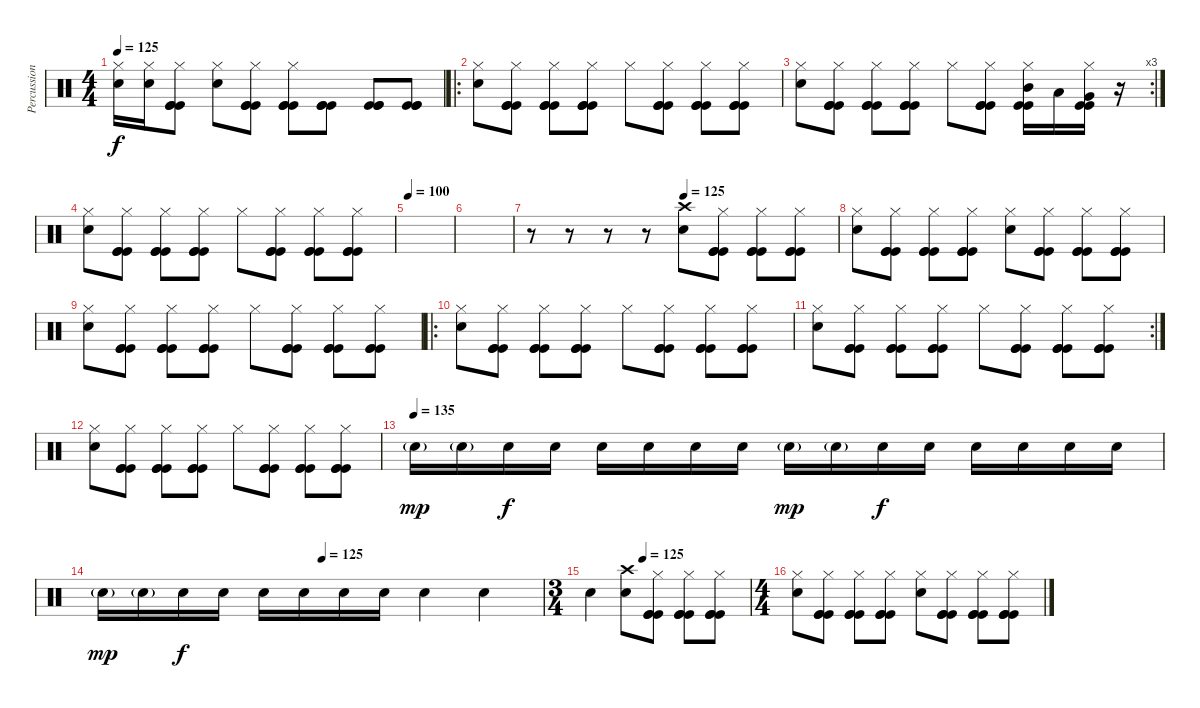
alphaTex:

\track ("Percussion" "Percussion") {instrument percussion}
\staff {score}
\articulation defaults
\ts (4 4)
\tempo 125
\clef neutral
\ks c
("Electric Snare (hit)" "Hi-Hat (closed)").16{dy f} ("Electric Snare (hit)" "Hi-Hat (closed)").16 ("Kick (hit)" "Kick (hit)" "Kick (hit)" "Hi-Hat (closed)").8 ("Electric Snare (hit)" "Hi-Hat (closed)").8 ("Kick (hit)" "Kick (hit)" "Kick (hit)" "Hi-Hat (closed)").8 ("Kick (hit)" "Kick (hit)" "Kick (hit)" "Hi-Hat (closed)").8 ("Kick (hit)" "Kick (hit)" "Kick (hit)").8 ("Kick (hit)" "Kick (hit)" "Kick (hit)").8 ("Kick (hit)" "Kick (hit)" "Kick (hit)").8 |
\ro
("Electric Snare (hit)" "Hi-Hat (closed)").8 ("Kick (hit)" "Kick (hit)" "Kick (hit)" "Hi-Hat (closed)").8 ("Kick (hit)" "Kick (hit)" "Kick (hit)" "Hi-Hat (closed)").8 ("Kick (hit)" "Kick (hit)" "Kick (hit)" "Hi-Hat (closed)").8 "Hi-Hat (closed)".8 ("Kick (hit)" "Kick (hit)" "Kick (hit)" "Hi-Hat (closed)").8 ("Kick (hit)" "Kick (hit)" "Kick (hit)" "Hi-Hat (closed)").8 ("Kick (hit)" "Kick (hit)" "Kick (hit)" "Hi-Hat (closed)").8 |
\rc 3
("Electric Snare (hit)" "Hi-Hat (closed)").8 ("Kick (hit)" "Kick (hit)" "Kick (hit)" "Hi-Hat (closed)").8 ("Kick (hit)" "Kick (hit)" "Kick (hit)" "Hi-Hat (closed)").8 ("Kick (hit)" "Kick (hit)" "Kick (hit)" "Hi-Hat (closed)").8 "Hi-Hat (closed)".8 ("Kick (hit)" "Kick (hit)" "Kick (hit)" "Hi-Hat (closed)").8 ("Mid Tom (hit)" "Kick (hit)" "Kick (hit)" "Hi-Hat (closed)").16 "Low Tom (hit)".16 ("Very Low Tom (hit)" "Kick (hit)" "Kick (hit)" "Hi-Hat (closed)").16 r.16 |
("Electric Snare (hit)" "Hi-Hat (closed)").8 ("Kick (hit)" "Kick (hit)" "Kick (hit)" "Hi-Hat (closed)").8 ("Kick (hit)" "Kick (hit)" "Kick (hit)" "Hi-Hat (closed)").8 ("Kick (hit)" "Kick (hit)" "Kick (hit)" "Hi-Hat (closed)").8 "Hi-Hat (closed)".8 ("Kick (hit)" "Kick (hit)" "Kick (hit)" "Hi-Hat (closed)").8 ("Kick (hit)" "Kick (hit)" "Kick (hit)" "Hi-Hat (closed)").8 ("Kick (hit)" "Kick (hit)" "Kick (hit)" "Hi-Hat (closed)").8 |
\tempo 100
|
|
\tempo (125 0.5)
r.8 r.8 r.8 r.8 ("Electric Snare (hit)" "Crash high (hit)").8 ("Kick (hit)" "Kick (hit)" "Kick (hit)" "Hi-Hat (closed)").8 ("Kick (hit)" "Kick (hit)" "Kick (hit)" "Hi-Hat (closed)").8 ("Kick (hit)" "Kick (hit)" "Kick (hit)" "Hi-Hat (closed)").8 |
("Electric Snare (hit)" "Hi-Hat (closed)").8 ("Kick (hit)" "Kick (hit)" "Kick (hit)" "Hi-Hat (closed)").8 ("Kick (hit)" "Kick (hit)" "Kick (hit)" "Hi-Hat (closed)").8 ("Kick (hit)" "Kick (hit)" "Kick (hit)" "Hi-Hat (closed)").8 ("Electric Snare (hit)" "Hi-Hat (closed)").8 ("Kick (hit)" "Kick (hit)" "Kick (hit)" "Hi-Hat (closed)").8 ("Kick (hit)" "Kick (hit)" "Kick (hit)" "Hi-Hat (closed)").8 ("Kick (hit)" "Kick (hit)" "Kick (hit)" "Hi-Hat (closed)").8 |
("Electric Snare (hit)" "Hi-Hat (closed)").8 ("Kick (hit)" "Kick (hit)" "Kick (hit)" "Hi-Hat (closed)").8 ("Kick (hit)" "Kick (hit)" "Kick (hit)" "Hi-Hat (closed)").8 ("Kick (hit)" "Kick (hit)" "Kick (hit)" "Hi-Hat (closed)").8 "Hi-Hat (closed)".8 ("Kick (hit)" "Kick (hit)" "Kick (hit)" "Hi-Hat (closed)").8 ("Kick (hit)" "Kick (hit)" "Kick (hit)" "Hi-Hat (closed)").8 ("Kick (hit)" "Kick (hit)" "Kick (hit)" "Hi-Hat (closed)").8 |
\ro
("Electric Snare (hit)" "Hi-Hat (closed)").8 ("Kick (hit)" "Kick (hit)" "Kick (hit)" "Hi-Hat (closed)").8 ("Kick (hit)" "Kick (hit)" "Kick (hit)" "Hi-Hat (closed)").8 ("Kick (hit)" "Kick (hit)" "Kick (hit)" "Hi-Hat (closed)").8 "Hi-Hat (closed)".8 ("Kick (hit)" "Kick (hit)" "Kick (hit)" "Hi-Hat (closed)").8 ("Kick (hit)" "Kick (hit)" "Kick (hit)" "Hi-Hat (closed)").8 ("Kick (hit)" "Kick (hit)" "Kick (hit)" "Hi-Hat (closed)").8 |
\rc 2
("Electric Snare (hit)" "Hi-Hat (closed)").8 ("Kick (hit)" "Kick (hit)" "Kick (hit)" "Hi-Hat (closed)").8 ("Kick (hit)" "Kick (hit)" "Kick (hit)" "Hi-Hat (closed)").8 ("Kick (hit)" "Kick (hit)" "Kick (hit)" "Hi-Hat (closed)").8 "Hi-Hat (closed)".8 ("Kick (hit)" "Kick (hit)" "Kick (hit)" "Hi-Hat (closed)").8 ("Kick (hit)" "Kick (hit)" "Kick (hit)" "Hi-Hat (closed)").8 ("Kick (hit)" "Kick (hit)" "Kick (hit)" "Hi-Hat (closed)").8 |
("Electric Snare (hit)" "Hi-Hat (closed)").8 ("Kick (hit)" "Kick (hit)" "Kick (hit)" "Hi-Hat (closed)").8 ("Kick (hit)" "Kick (hit)" "Kick (hit)" "Hi-Hat (closed)").8 ("Kick (hit)" "Kick (hit)" "Kick (hit)" "Hi-Hat (closed)").8 "Hi-Hat (closed)".8 ("Kick (hit)" "Kick (hit)" "Kick (hit)" "Hi-Hat (closed)").8 ("Kick (hit)" "Kick (hit)" "Kick (hit)" "Hi-Hat (closed)").8 ("Kick (hit)" "Kick (hit)" "Kick (hit)" "Hi-Hat (closed)").8 |
\tempo (135)
"Electric Snare (hit)"{g}.16{dy mp} "Electric Snare (hit)"{g}.16 "Electric Snare (hit)".16{dy f} "Electric Snare (hit)".16 "Electric Snare (hit)".16 "Electric Snare (hit)".16 "Electric Snare (hit)".16 "Electric Snare (hit)".16 "Electric Snare (hit)"{g}.16{dy mp} "Electric Snare (hit)"{g}.16 "Electric Snare (hit)".16{dy f} "Electric Snare (hit)".16 "Electric Snare (hit)".16 "Electric Snare (hit)".16 "Electric Snare (hit)".16 "Electric Snare (hit)".16 |
\tempo (125 0.5)
"Electric Snare (hit)"{g}.16{dy mp} "Electric Snare (hit)"{g}.16 "Electric Snare (hit)".16{dy f} "Electric Snare (hit)".16 "Electric Snare (hit)".16 "Electric Snare (hit)".16 "Electric Snare (hit)".16 "Electric Snare (hit)".16 "Electric Snare (hit)".4 "Electric Snare (hit)".4 |
\ts (3 4)
\tempo (125 0.3333333333333333)
"Electric Snare (hit)".4 ("Electric Snare (hit)" "Crash high (hit)").8 ("Kick (hit)" "Kick (hit)" "Kick (hit)" "Hi-Hat (closed)").8 ("Kick (hit)" "Kick (hit)" "Kick (hit)" "Hi-Hat (closed)").8 ("Kick (hit)" "Kick (hit)" "Kick (hit)" "Hi-Hat (closed)").8 |
\ts (4 4)
("Electric Snare (hit)" "Hi-Hat (closed)").8 ("Kick (hit)" "Kick (hit)" "Kick (hit)" "Hi-Hat (closed)").8 ("Kick (hit)" "Kick (hit)" "Kick (hit)" "Hi-Hat (closed)").8 ("Kick (hit)" "Kick (hit)" "Kick (hit)" "Hi-Hat (closed)").8 ("Electric Snare (hit)" "Hi-Hat (closed)").8 ("Kick (hit)" "Kick (hit)" "Kick (hit)" "Hi-Hat (closed)").8 ("Kick (hit)" "Kick (hit)" "Kick (hit)" "Hi-Hat (closed)").8 ("Kick (hit)" "Kick (hit)" "Kick (hit)" "Hi-Hat (closed)").8
